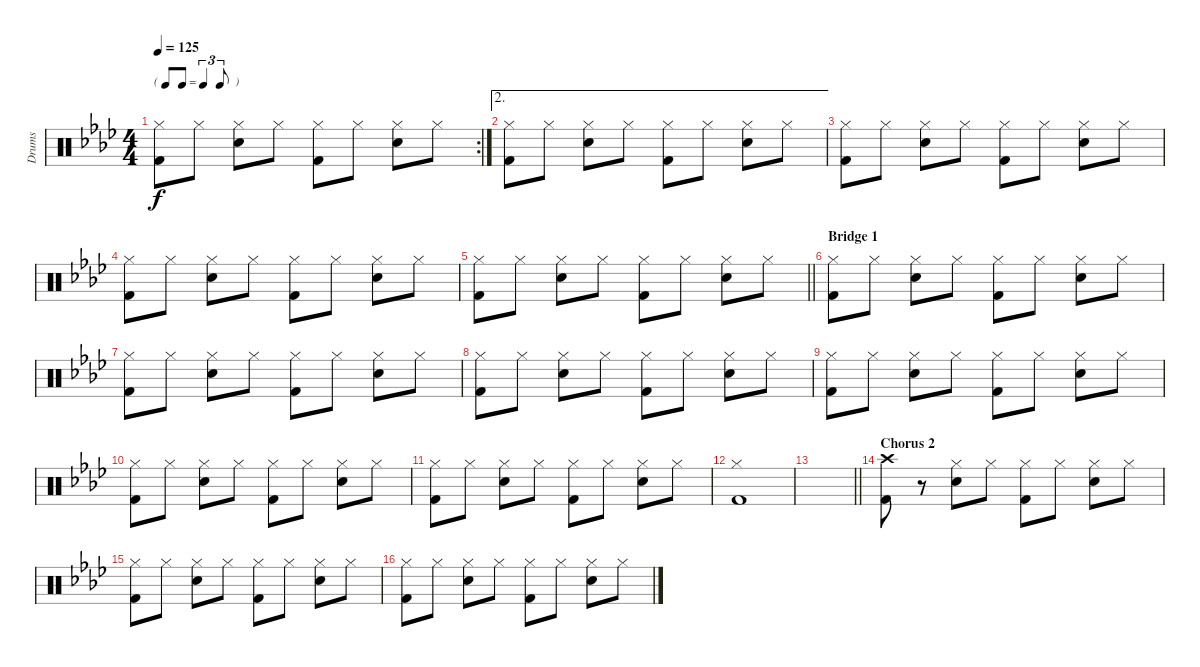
\track ("Drums" "Drums") {instrument percussion}
\staff {score}
\articulation defaults
\rc 2
\ts (4 4)
\tf triplet8th
\tempo 125
\clef neutral
\ks ab
("Hi-Hat (closed)" "Kick (hit) 2").8{dy f} "Hi-Hat (closed)".8 ("Hi-Hat (closed)" "Electric Snare (hit)").8 "Hi-Hat (closed)".8 ("Hi-Hat (closed)" "Kick (hit) 2").8 "Hi-Hat (closed)".8 ("Hi-Hat (closed)" "Electric Snare (hit)").8 "Hi-Hat (closed)".8 |
\ae 2
("Hi-Hat (closed)" "Kick (hit) 2").8 "Hi-Hat (closed)".8 ("Hi-Hat (closed)" "Electric Snare (hit)").8 "Hi-Hat (closed)".8 ("Hi-Hat (closed)" "Kick (hit) 2").8 "Hi-Hat (closed)".8 ("Hi-Hat (closed)" "Electric Snare (hit)").8 "Hi-Hat (closed)".8 |
("Hi-Hat (closed)" "Kick (hit) 2").8 "Hi-Hat (closed)".8 ("Hi-Hat (closed)" "Electric Snare (hit)").8 "Hi-Hat (closed)".8 ("Hi-Hat (closed)" "Kick (hit) 2").8 "Hi-Hat (closed)".8 ("Hi-Hat (closed)" "Electric Snare (hit)").8 "Hi-Hat (closed)".8 |
("Hi-Hat (closed)" "Kick (hit) 2").8 "Hi-Hat (closed)".8 ("Hi-Hat (closed)" "Electric Snare (hit)").8 "Hi-Hat (closed)".8 ("Hi-Hat (closed)" "Kick (hit) 2").8 "Hi-Hat (closed)".8 ("Hi-Hat (closed)" "Electric Snare (hit)").8 "Hi-Hat (closed)".8 |
\barLineRight lightlight
("Hi-Hat (closed)" "Kick (hit) 2").8 "Hi-Hat (closed)".8 ("Hi-Hat (closed)" "Electric Snare (hit)").8 "Hi-Hat (closed)".8 ("Hi-Hat (closed)" "Kick (hit) 2").8 "Hi-Hat (closed)".8 ("Hi-Hat (closed)" "Electric Snare (hit)").8 "Hi-Hat (closed)".8 |
\section ("" "Bridge 1")
("Hi-Hat (closed)" "Kick (hit) 2").8 "Hi-Hat (closed)".8 ("Hi-Hat (closed)" "Electric Snare (hit)").8 "Hi-Hat (closed)".8 ("Hi-Hat (closed)" "Kick (hit) 2").8 "Hi-Hat (closed)".8 ("Hi-Hat (closed)" "Electric Snare (hit)").8 "Hi-Hat (closed)".8 |
("Hi-Hat (closed)" "Kick (hit) 2").8 "Hi-Hat (closed)".8 ("Hi-Hat (closed)" "Electric Snare (hit)").8 "Hi-Hat (closed)".8 ("Hi-Hat (closed)" "Kick (hit) 2").8 "Hi-Hat (closed)".8 ("Hi-Hat (closed)" "Electric Snare (hit)").8 "Hi-Hat (closed)".8 |
("Hi-Hat (closed)" "Kick (hit) 2").8 "Hi-Hat (closed)".8 ("Hi-Hat (closed)" "Electric Snare (hit)").8 "Hi-Hat (closed)".8 ("Hi-Hat (closed)" "Kick (hit) 2").8 "Hi-Hat (closed)".8 ("Hi-Hat (closed)" "Electric Snare (hit)").8 "Hi-Hat (closed)".8 |
("Hi-Hat (closed)" "Kick (hit) 2").8 "Hi-Hat (closed)".8 ("Hi-Hat (closed)" "Electric Snare (hit)").8 "Hi-Hat (closed)".8 ("Hi-Hat (closed)" "Kick (hit) 2").8 "Hi-Hat (closed)".8 ("Hi-Hat (closed)" "Electric Snare (hit)").8 "Hi-Hat (closed)".8 |
("Hi-Hat (closed)" "Kick (hit) 2").8 "Hi-Hat (closed)".8 ("Hi-Hat (closed)" "Electric Snare (hit)").8 "Hi-Hat (closed)".8 ("Hi-Hat (closed)" "Kick (hit) 2").8 "Hi-Hat (closed)".8 ("Hi-Hat (closed)" "Electric Snare (hit)").8 "Hi-Hat (closed)".8 |
("Hi-Hat (closed)" "Kick (hit) 2").8 "Hi-Hat (closed)".8 ("Hi-Hat (closed)" "Electric Snare (hit)").8 "Hi-Hat (closed)".8 ("Hi-Hat (closed)" "Kick (hit) 2").8 "Hi-Hat (closed)".8 ("Hi-Hat (closed)" "Electric Snare (hit)").8 "Hi-Hat (closed)".8 |
("Hi-Hat (closed)" "Kick (hit) 2").1 |
\barLineRight lightlight
|
\section ("" "Chorus 2")
("Crash high (hit)" "Kick (hit) 2").8 r.8 ("Hi-Hat (closed)" "Electric Snare (hit)").8 "Hi-Hat (closed)".8 ("Hi-Hat (closed)" "Kick (hit) 2").8 "Hi-Hat (closed)".8 ("Hi-Hat (closed)" "Electric Snare (hit)").8 "Hi-Hat (closed)".8 |
("Hi-Hat (closed)" "Kick (hit) 2").8 "Hi-Hat (closed)".8 ("Hi-Hat (closed)" "Electric Snare (hit)").8 "Hi-Hat (closed)".8 ("Hi-Hat (closed)" "Kick (hit) 2").8 "Hi-Hat (closed)".8 ("Hi-Hat (closed)" "Electric Snare (hit)").8 "Hi-Hat (closed)".8 |
("Hi-Hat (closed)" "Kick (hit) 2").8 "Hi-Hat (closed)".8 ("Hi-Hat (closed)" "Electric Snare (hit)").8 "Hi-Hat (closed)".8 ("Hi-Hat (closed)" "Kick (hit) 2").8 "Hi-Hat (closed)".8 ("Hi-Hat (closed)" "Electric Snare (hit)").8 "Hi-Hat (closed)".8
